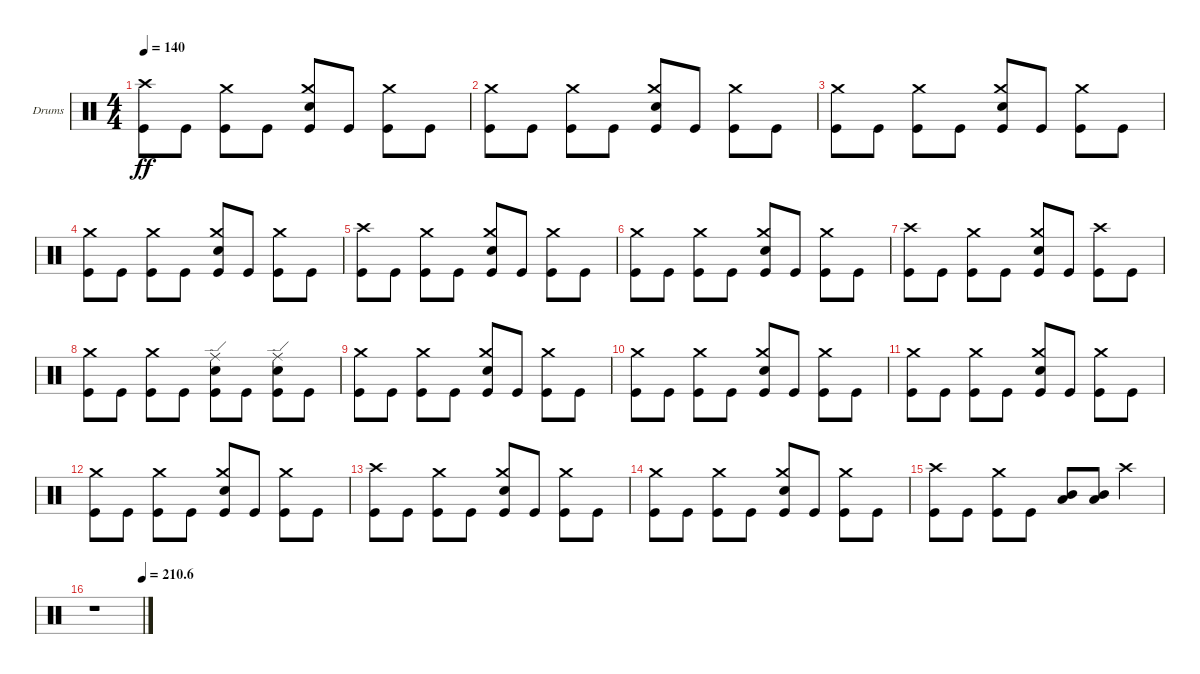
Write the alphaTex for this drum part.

\bracketExtendMode groupsimilarinstruments
\firstSystemTrackNameOrientation horizontal
\otherSystemsTrackNameOrientation horizontal
\track ("Drumkit" "Drums") {instrument percussion}
\staff {score}
\articulation defaults
\ts (4 4)
\tempo 140
\clef neutral
\ks c
("Kick (hit)" "Crash high (hit)").8{dy ff} "Kick (hit)".8 ("Kick (hit)" "Crash medium (hit)").8 "Kick (hit)".8 ("Kick (hit)" "Crash medium (hit)" "Snare (hit) 2").8 "Kick (hit)".8 ("Kick (hit)" "Crash medium (hit)").8 "Kick (hit)".8 |
("Kick (hit)" "Crash medium (hit)").8 "Kick (hit)".8 ("Kick (hit)" "Crash medium (hit)").8 "Kick (hit)".8 ("Kick (hit)" "Crash medium (hit)" "Snare (hit) 2").8 "Kick (hit)".8 ("Kick (hit)" "Crash medium (hit)").8 "Kick (hit)".8 |
("Kick (hit)" "Crash medium (hit)").8 "Kick (hit)".8 ("Kick (hit)" "Crash medium (hit)").8 "Kick (hit)".8 ("Kick (hit)" "Crash medium (hit)" "Snare (hit) 2").8 "Kick (hit)".8 ("Kick (hit)" "Crash medium (hit)").8 "Kick (hit)".8 |
("Kick (hit)" "Crash medium (hit)").8 "Kick (hit)".8 ("Kick (hit)" "Crash medium (hit)").8 "Kick (hit)".8 ("Kick (hit)" "Crash medium (hit)" "Snare (hit) 2").8 "Kick (hit)".8 ("Kick (hit)" "Crash medium (hit)").8 "Kick (hit)".8 |
("Kick (hit)" "Crash high (hit)").8 "Kick (hit)".8 ("Kick (hit)" "Crash medium (hit)").8 "Kick (hit)".8 ("Kick (hit)" "Crash medium (hit)" "Snare (hit) 2").8 "Kick (hit)".8 ("Kick (hit)" "Crash medium (hit)").8 "Kick (hit)".8 |
("Kick (hit)" "Crash medium (hit)").8 "Kick (hit)".8 ("Kick (hit)" "Crash medium (hit)").8 "Kick (hit)".8 ("Kick (hit)" "Crash medium (hit)" "Snare (hit) 2").8 "Kick (hit)".8 ("Kick (hit)" "Crash medium (hit)").8 "Kick (hit)".8 |
("Kick (hit)" "Crash high (hit)").8 "Kick (hit)".8 ("Kick (hit)" "Crash medium (hit)").8 "Kick (hit)".8 ("Kick (hit)" "Crash medium (hit)" "Snare (hit) 2").8 "Kick (hit)".8 ("Kick (hit)" "Crash high (hit)").8 "Kick (hit)".8 |
("Kick (hit)" "Crash medium (hit)").8 "Kick (hit)".8 ("Kick (hit)" "Crash medium (hit)").8 "Kick (hit)".8 ("Kick (hit)" "Snare (hit) 2" "Ride (edge)").8 "Kick (hit)".8 ("Kick (hit)" "Snare (hit) 2" "Ride (edge)").8 "Kick (hit)".8 |
("Kick (hit)" "Crash medium (hit)").8 "Kick (hit)".8 ("Kick (hit)" "Crash medium (hit)").8 "Kick (hit)".8 ("Kick (hit)" "Crash medium (hit)" "Snare (hit) 2").8 "Kick (hit)".8 ("Kick (hit)" "Crash medium (hit)").8 "Kick (hit)".8 |
("Kick (hit)" "Crash medium (hit)").8 "Kick (hit)".8 ("Kick (hit)" "Crash medium (hit)").8 "Kick (hit)".8 ("Kick (hit)" "Crash medium (hit)" "Snare (hit) 2").8 "Kick (hit)".8 ("Kick (hit)" "Crash medium (hit)").8 "Kick (hit)".8 |
("Kick (hit)" "Crash medium (hit)").8 "Kick (hit)".8 ("Kick (hit)" "Crash medium (hit)").8 "Kick (hit)".8 ("Kick (hit)" "Crash medium (hit)" "Snare (hit) 2").8 "Kick (hit)".8 ("Kick (hit)" "Crash medium (hit)").8 "Kick (hit)".8 |
("Kick (hit)" "Crash medium (hit)").8 "Kick (hit)".8 ("Kick (hit)" "Crash medium (hit)").8 "Kick (hit)".8 ("Kick (hit)" "Crash medium (hit)" "Snare (hit) 2").8 "Kick (hit)".8 ("Kick (hit)" "Crash medium (hit)").8 "Kick (hit)".8 |
("Kick (hit)" "Crash high (hit)").8 "Kick (hit)".8 ("Kick (hit)" "Crash medium (hit)").8 "Kick (hit)".8 ("Kick (hit)" "Crash medium (hit)" "Snare (hit) 2").8 "Kick (hit)".8 ("Kick (hit)" "Crash medium (hit)").8 "Kick (hit)".8 |
("Kick (hit)" "Crash medium (hit)").8 "Kick (hit)".8 ("Kick (hit)" "Crash medium (hit)").8 "Kick (hit)".8 ("Kick (hit)" "Crash medium (hit)" "Snare (hit) 2").8 "Kick (hit)".8 ("Kick (hit)" "Crash medium (hit)").8 "Kick (hit)".8 |
("Kick (hit)" "Crash high (hit)").8 "Kick (hit)".8 ("Kick (hit)" "Crash medium (hit)").8 "Kick (hit)".8 ("Mid Tom (hit)" "Low Tom (hit)").8 ("Low Tom (hit)" "Mid Tom (hit)").8 "Crash high (hit)".4 |
\tempo (210.6 1)
r.1
